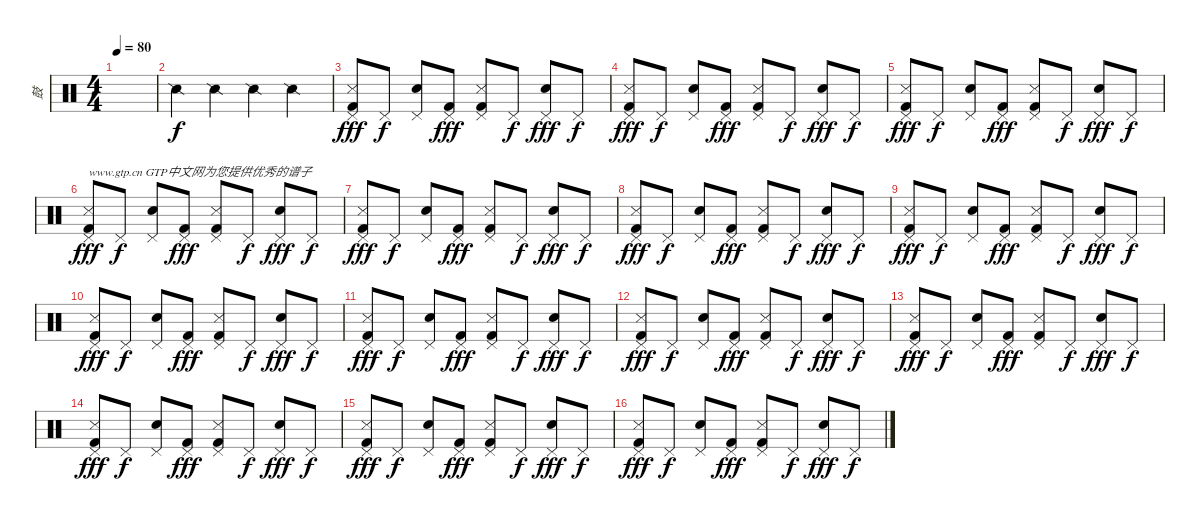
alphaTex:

\track ("鼓" "鼓") {instrument percussion}
\staff {score}
\articulation defaults
\ts (4 4)
\tempo 80
\clef neutral
\ks c
|
"Snare (side stick) 2".4 "Snare (side stick) 2".4 "Snare (side stick) 2".4 "Snare (side stick) 2".4 |
("Snare (side stick) 3" "Pedal Hi-Hat (hit)" "Kick (hit) 2").8{dy fff} "Pedal Hi-Hat (hit)".8{dy f} ("Hand Clap (hit)" "Pedal Hi-Hat (hit)").8 ("Pedal Hi-Hat (hit)" "Kick (hit) 2").8{dy fff} ("Snare (side stick) 3" "Pedal Hi-Hat (hit)" "Kick (hit) 2").8 "Pedal Hi-Hat (hit)".8{dy f} ("Hand Clap (hit)" "Pedal Hi-Hat (hit)").8{dy fff} "Pedal Hi-Hat (hit)".8{dy f} |
("Snare (side stick) 3" "Pedal Hi-Hat (hit)" "Kick (hit) 2").8{dy fff} "Pedal Hi-Hat (hit)".8{dy f} ("Hand Clap (hit)" "Pedal Hi-Hat (hit)").8 ("Pedal Hi-Hat (hit)" "Kick (hit) 2").8{dy fff} ("Snare (side stick) 3" "Pedal Hi-Hat (hit)" "Kick (hit) 2").8 "Pedal Hi-Hat (hit)".8{dy f} ("Hand Clap (hit)" "Pedal Hi-Hat (hit)").8{dy fff} "Pedal Hi-Hat (hit)".8{dy f} |
("Snare (side stick) 3" "Pedal Hi-Hat (hit)" "Kick (hit) 2").8{dy fff} "Pedal Hi-Hat (hit)".8{dy f} ("Hand Clap (hit)" "Pedal Hi-Hat (hit)").8 ("Pedal Hi-Hat (hit)" "Kick (hit) 2").8{dy fff} ("Snare (side stick) 3" "Pedal Hi-Hat (hit)" "Kick (hit) 2").8 "Pedal Hi-Hat (hit)".8{dy f} ("Hand Clap (hit)" "Pedal Hi-Hat (hit)").8{dy fff} "Pedal Hi-Hat (hit)".8{dy f} |
("Snare (side stick) 3" "Pedal Hi-Hat (hit)" "Kick (hit) 2").8{txt "www.gtp.cn GTP中文网为您提供优秀的谱子" dy fff} "Pedal Hi-Hat (hit)".8{dy f} ("Hand Clap (hit)" "Pedal Hi-Hat (hit)").8 ("Pedal Hi-Hat (hit)" "Kick (hit) 2").8{dy fff} ("Snare (side stick) 3" "Pedal Hi-Hat (hit)" "Kick (hit) 2").8 "Pedal Hi-Hat (hit)".8{dy f} ("Hand Clap (hit)" "Pedal Hi-Hat (hit)").8{dy fff} "Pedal Hi-Hat (hit)".8{dy f} |
("Snare (side stick) 3" "Pedal Hi-Hat (hit)" "Kick (hit) 2").8{dy fff} "Pedal Hi-Hat (hit)".8{dy f} ("Hand Clap (hit)" "Pedal Hi-Hat (hit)").8 ("Pedal Hi-Hat (hit)" "Kick (hit) 2").8{dy fff} ("Snare (side stick) 3" "Pedal Hi-Hat (hit)" "Kick (hit) 2").8 "Pedal Hi-Hat (hit)".8{dy f} ("Hand Clap (hit)" "Pedal Hi-Hat (hit)").8{dy fff} "Pedal Hi-Hat (hit)".8{dy f} |
("Snare (side stick) 3" "Pedal Hi-Hat (hit)" "Kick (hit) 2").8{dy fff} "Pedal Hi-Hat (hit)".8{dy f} ("Hand Clap (hit)" "Pedal Hi-Hat (hit)").8 ("Pedal Hi-Hat (hit)" "Kick (hit) 2").8{dy fff} ("Snare (side stick) 3" "Pedal Hi-Hat (hit)" "Kick (hit) 2").8 "Pedal Hi-Hat (hit)".8{dy f} ("Hand Clap (hit)" "Pedal Hi-Hat (hit)").8{dy fff} "Pedal Hi-Hat (hit)".8{dy f} |
("Snare (side stick) 3" "Pedal Hi-Hat (hit)" "Kick (hit) 2").8{dy fff} "Pedal Hi-Hat (hit)".8{dy f} ("Hand Clap (hit)" "Pedal Hi-Hat (hit)").8 ("Pedal Hi-Hat (hit)" "Kick (hit) 2").8{dy fff} ("Snare (side stick) 3" "Pedal Hi-Hat (hit)" "Kick (hit) 2").8 "Pedal Hi-Hat (hit)".8{dy f} ("Hand Clap (hit)" "Pedal Hi-Hat (hit)").8{dy fff} "Pedal Hi-Hat (hit)".8{dy f} |
("Snare (side stick) 3" "Pedal Hi-Hat (hit)" "Kick (hit) 2").8{dy fff} "Pedal Hi-Hat (hit)".8{dy f} ("Hand Clap (hit)" "Pedal Hi-Hat (hit)").8 ("Pedal Hi-Hat (hit)" "Kick (hit) 2").8{dy fff} ("Snare (side stick) 3" "Pedal Hi-Hat (hit)" "Kick (hit) 2").8 "Pedal Hi-Hat (hit)".8{dy f} ("Hand Clap (hit)" "Pedal Hi-Hat (hit)").8{dy fff} "Pedal Hi-Hat (hit)".8{dy f} |
("Snare (side stick) 3" "Pedal Hi-Hat (hit)" "Kick (hit) 2").8{dy fff} "Pedal Hi-Hat (hit)".8{dy f} ("Hand Clap (hit)" "Pedal Hi-Hat (hit)").8 ("Pedal Hi-Hat (hit)" "Kick (hit) 2").8{dy fff} ("Snare (side stick) 3" "Pedal Hi-Hat (hit)" "Kick (hit) 2").8 "Pedal Hi-Hat (hit)".8{dy f} ("Hand Clap (hit)" "Pedal Hi-Hat (hit)").8{dy fff} "Pedal Hi-Hat (hit)".8{dy f} |
("Snare (side stick) 3" "Pedal Hi-Hat (hit)" "Kick (hit) 2").8{dy fff} "Pedal Hi-Hat (hit)".8{dy f} ("Hand Clap (hit)" "Pedal Hi-Hat (hit)").8 ("Pedal Hi-Hat (hit)" "Kick (hit) 2").8{dy fff} ("Snare (side stick) 3" "Pedal Hi-Hat (hit)" "Kick (hit) 2").8 "Pedal Hi-Hat (hit)".8{dy f} ("Hand Clap (hit)" "Pedal Hi-Hat (hit)").8{dy fff} "Pedal Hi-Hat (hit)".8{dy f} |
("Snare (side stick) 3" "Pedal Hi-Hat (hit)" "Kick (hit) 2").8{dy fff} "Pedal Hi-Hat (hit)".8{dy f} ("Hand Clap (hit)" "Pedal Hi-Hat (hit)").8 ("Pedal Hi-Hat (hit)" "Kick (hit) 2").8{dy fff} ("Snare (side stick) 3" "Pedal Hi-Hat (hit)" "Kick (hit) 2").8 "Pedal Hi-Hat (hit)".8{dy f} ("Hand Clap (hit)" "Pedal Hi-Hat (hit)").8{dy fff} "Pedal Hi-Hat (hit)".8{dy f} |
("Snare (side stick) 3" "Pedal Hi-Hat (hit)" "Kick (hit) 2").8{dy fff} "Pedal Hi-Hat (hit)".8{dy f} ("Hand Clap (hit)" "Pedal Hi-Hat (hit)").8 ("Pedal Hi-Hat (hit)" "Kick (hit) 2").8{dy fff} ("Snare (side stick) 3" "Pedal Hi-Hat (hit)" "Kick (hit) 2").8 "Pedal Hi-Hat (hit)".8{dy f} ("Hand Clap (hit)" "Pedal Hi-Hat (hit)").8{dy fff} "Pedal Hi-Hat (hit)".8{dy f} |
("Snare (side stick) 3" "Pedal Hi-Hat (hit)" "Kick (hit) 2").8{dy fff} "Pedal Hi-Hat (hit)".8{dy f} ("Hand Clap (hit)" "Pedal Hi-Hat (hit)").8 ("Pedal Hi-Hat (hit)" "Kick (hit) 2").8{dy fff} ("Snare (side stick) 3" "Pedal Hi-Hat (hit)" "Kick (hit) 2").8 "Pedal Hi-Hat (hit)".8{dy f} ("Hand Clap (hit)" "Pedal Hi-Hat (hit)").8{dy fff} "Pedal Hi-Hat (hit)".8{dy f} |
("Snare (side stick) 3" "Pedal Hi-Hat (hit)" "Kick (hit) 2").8{dy fff} "Pedal Hi-Hat (hit)".8{dy f} ("Hand Clap (hit)" "Pedal Hi-Hat (hit)").8 ("Pedal Hi-Hat (hit)" "Kick (hit) 2").8{dy fff} ("Snare (side stick) 3" "Pedal Hi-Hat (hit)" "Kick (hit) 2").8 "Pedal Hi-Hat (hit)".8{dy f} ("Hand Clap (hit)" "Pedal Hi-Hat (hit)").8{dy fff} "Pedal Hi-Hat (hit)".8{dy f}
